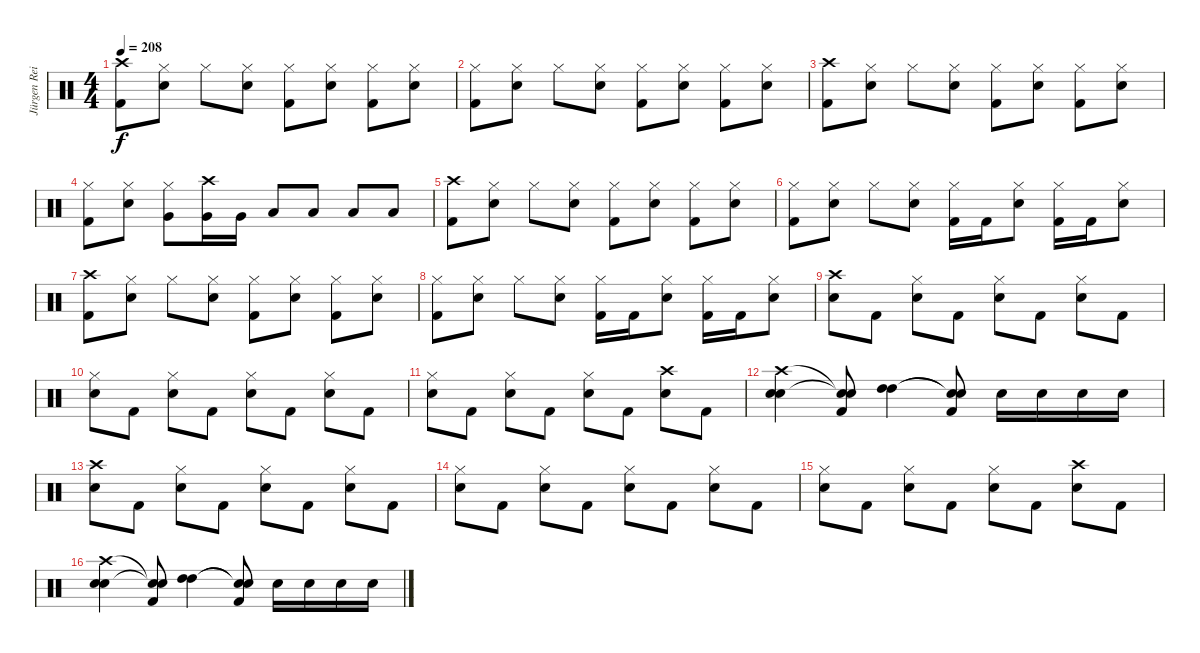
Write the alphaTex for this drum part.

\track ("Jürgen Reil" "Jürgen Rei") {instrument percussion}
\staff {score}
\articulation defaults
\ts (4 4)
\tempo 208
\clef neutral
\ks c
("Crash high (hit)" "Kick (hit) 2").8{dy f} ("Hi-Hat (closed)" "Electric Snare (hit)").8 "Hi-Hat (closed)".8 ("Hi-Hat (closed)" "Electric Snare (hit)").8 ("Hi-Hat (closed)" "Kick (hit) 2").8 ("Hi-Hat (closed)" "Electric Snare (hit)").8 ("Hi-Hat (closed)" "Kick (hit) 2").8 ("Hi-Hat (closed)" "Electric Snare (hit)").8 |
("Hi-Hat (closed)" "Kick (hit) 2").8 ("Hi-Hat (closed)" "Electric Snare (hit)").8 "Hi-Hat (closed)".8 ("Hi-Hat (closed)" "Electric Snare (hit)").8 ("Hi-Hat (closed)" "Kick (hit) 2").8 ("Hi-Hat (closed)" "Electric Snare (hit)").8 ("Hi-Hat (closed)" "Kick (hit) 2").8 ("Hi-Hat (closed)" "Electric Snare (hit)").8 |
("Crash high (hit)" "Kick (hit) 2").8 ("Hi-Hat (closed)" "Electric Snare (hit)").8 "Hi-Hat (closed)".8 ("Hi-Hat (closed)" "Electric Snare (hit)").8 ("Hi-Hat (closed)" "Kick (hit) 2").8 ("Hi-Hat (closed)" "Electric Snare (hit)").8 ("Hi-Hat (closed)" "Kick (hit) 2").8 ("Hi-Hat (closed)" "Electric Snare (hit)").8 |
("Hi-Hat (closed)" "Kick (hit) 2").8 ("Hi-Hat (closed)" "Electric Snare (hit)").8 ("Hi-Hat (closed)" "Very Low Tom (hit)").8 ("Crash high (hit)" "Very Low Tom (hit)").16 "Very Low Tom (hit)".16 "Low Tom (hit)".8 "Low Tom (hit)".8 "Low Floor Tom (hit)".8 "Low Floor Tom (hit)".8 |
("Crash high (hit)" "Kick (hit) 2").8 ("Hi-Hat (closed)" "Electric Snare (hit)").8 "Hi-Hat (closed)".8 ("Hi-Hat (closed)" "Electric Snare (hit)").8 ("Hi-Hat (closed)" "Kick (hit) 2").8 ("Hi-Hat (closed)" "Electric Snare (hit)").8 ("Hi-Hat (closed)" "Kick (hit) 2").8 ("Hi-Hat (closed)" "Electric Snare (hit)").8 |
("Hi-Hat (closed)" "Kick (hit) 2").8 ("Hi-Hat (closed)" "Electric Snare (hit)").8 "Hi-Hat (closed)".8 ("Hi-Hat (closed)" "Electric Snare (hit)").8 ("Hi-Hat (closed)" "Kick (hit) 2").16 "Kick (hit) 2".16 ("Hi-Hat (closed)" "Electric Snare (hit)").8 ("Hi-Hat (closed)" "Kick (hit) 2").16 "Kick (hit) 2".16 ("Hi-Hat (closed)" "Electric Snare (hit)").8 |
("Crash high (hit)" "Kick (hit) 2").8 ("Hi-Hat (closed)" "Electric Snare (hit)").8 "Hi-Hat (closed)".8 ("Hi-Hat (closed)" "Electric Snare (hit)").8 ("Hi-Hat (closed)" "Kick (hit) 2").8 ("Hi-Hat (closed)" "Electric Snare (hit)").8 ("Hi-Hat (closed)" "Kick (hit) 2").8 ("Hi-Hat (closed)" "Electric Snare (hit)").8 |
("Hi-Hat (closed)" "Kick (hit) 2").8 ("Hi-Hat (closed)" "Electric Snare (hit)").8 "Hi-Hat (closed)".8 ("Hi-Hat (closed)" "Electric Snare (hit)").8 ("Hi-Hat (closed)" "Kick (hit) 2").16 "Kick (hit) 2".16 ("Hi-Hat (closed)" "Electric Snare (hit)").8 ("Hi-Hat (closed)" "Kick (hit) 2").16 "Kick (hit) 2".16 ("Hi-Hat (closed)" "Electric Snare (hit)").8 |
("Crash high (hit)" "Electric Snare (hit)").8 "Kick (hit) 2".8 ("Hi-Hat (closed)" "Electric Snare (hit)").8 "Kick (hit) 2".8 ("Hi-Hat (closed)" "Electric Snare (hit)").8 "Kick (hit) 2".8 ("Hi-Hat (closed)" "Electric Snare (hit)").8 "Kick (hit) 2".8 |
("Hi-Hat (closed)" "Electric Snare (hit)").8 "Kick (hit) 2".8 ("Hi-Hat (closed)" "Electric Snare (hit)").8 "Kick (hit) 2".8 ("Hi-Hat (closed)" "Electric Snare (hit)").8 "Kick (hit) 2".8 ("Hi-Hat (closed)" "Electric Snare (hit)").8 "Kick (hit) 2".8 |
("Hi-Hat (closed)" "Electric Snare (hit)").8 "Kick (hit) 2".8 ("Hi-Hat (closed)" "Electric Snare (hit)").8 "Kick (hit) 2".8 ("Hi-Hat (closed)" "Electric Snare (hit)").8 "Kick (hit) 2".8 ("Crash high (hit)" "Electric Snare (hit)").8 "Kick (hit) 2".8 |
("Crash high (hit)" "Electric Snare (hit)" "Electric Snare (hit)").4 ("Snare (hit)"{t} "Snare (hit)"{t} "Kick (hit) 2").8 ("High Tom (hit)" "High Tom (hit)").4 ("Snare (hit)"{t} "Electric Snare (hit)"{t} "Kick (hit) 2").8 "Electric Snare (hit)".16 "Electric Snare (hit)".16 "Electric Snare (hit)".16 "Electric Snare (hit)".16 |
("Crash high (hit)" "Electric Snare (hit)").8 "Kick (hit) 2".8 ("Hi-Hat (closed)" "Electric Snare (hit)").8 "Kick (hit) 2".8 ("Hi-Hat (closed)" "Electric Snare (hit)").8 "Kick (hit) 2".8 ("Hi-Hat (closed)" "Electric Snare (hit)").8 "Kick (hit) 2".8 |
("Hi-Hat (closed)" "Electric Snare (hit)").8 "Kick (hit) 2".8 ("Hi-Hat (closed)" "Electric Snare (hit)").8 "Kick (hit) 2".8 ("Hi-Hat (closed)" "Electric Snare (hit)").8 "Kick (hit) 2".8 ("Hi-Hat (closed)" "Electric Snare (hit)").8 "Kick (hit) 2".8 |
("Hi-Hat (closed)" "Electric Snare (hit)").8 "Kick (hit) 2".8 ("Hi-Hat (closed)" "Electric Snare (hit)").8 "Kick (hit) 2".8 ("Hi-Hat (closed)" "Electric Snare (hit)").8 "Kick (hit) 2".8 ("Crash high (hit)" "Electric Snare (hit)").8 "Kick (hit) 2".8 |
("Crash high (hit)" "Electric Snare (hit)" "Electric Snare (hit)").4 ("Snare (hit)"{t} "Snare (hit)"{t} "Kick (hit) 2").8 ("High Tom (hit)" "High Tom (hit)").4 ("Snare (hit)"{t} "Electric Snare (hit)"{t} "Kick (hit) 2").8 "Electric Snare (hit)".16 "Electric Snare (hit)".16 "Electric Snare (hit)".16 "Electric Snare (hit)".16
